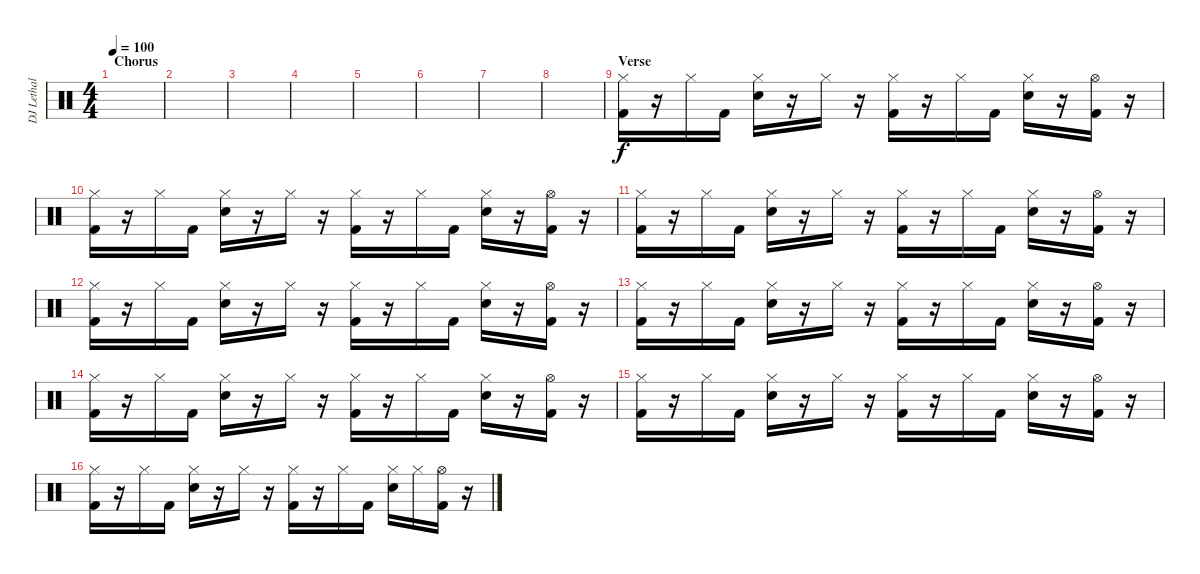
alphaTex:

\track ("DJ Lethal - Sample Drums" "DJ Lethal ") {instrument percussion}
\staff {score}
\articulation defaults
\ts (4 4)
\section ("" "Chorus")
\tempo 100
\clef neutral
\ks c
|
|
|
|
|
|
|
|
\section ("" "Verse")
("Hi-Hat (closed)" "Kick (hit) 2").16 r.16 "Hi-Hat (closed)".16 "Kick (hit) 2".16 ("Hi-Hat (closed)" "Electric Snare (hit)").16 r.16 "Hi-Hat (closed)".16 r.16 ("Hi-Hat (closed)" "Kick (hit) 2").16 r.16 "Hi-Hat (closed)".16 "Kick (hit) 2".16 ("Hi-Hat (closed)" "Electric Snare (hit)").16 r.16 ("Hi-Hat (open)" "Kick (hit) 2").16 r.16 |
("Hi-Hat (closed)" "Kick (hit) 2").16 r.16 "Hi-Hat (closed)".16 "Kick (hit) 2".16 ("Hi-Hat (closed)" "Electric Snare (hit)").16 r.16 "Hi-Hat (closed)".16 r.16 ("Hi-Hat (closed)" "Kick (hit) 2").16 r.16 "Hi-Hat (closed)".16 "Kick (hit) 2".16 ("Hi-Hat (closed)" "Electric Snare (hit)").16 r.16 ("Hi-Hat (open)" "Kick (hit) 2").16 r.16 |
("Hi-Hat (closed)" "Kick (hit) 2").16 r.16 "Hi-Hat (closed)".16 "Kick (hit) 2".16 ("Hi-Hat (closed)" "Electric Snare (hit)").16 r.16 "Hi-Hat (closed)".16 r.16 ("Hi-Hat (closed)" "Kick (hit) 2").16 r.16 "Hi-Hat (closed)".16 "Kick (hit) 2".16 ("Hi-Hat (closed)" "Electric Snare (hit)").16 r.16 ("Hi-Hat (open)" "Kick (hit) 2").16 r.16 |
("Hi-Hat (closed)" "Kick (hit) 2").16 r.16 "Hi-Hat (closed)".16 "Kick (hit) 2".16 ("Hi-Hat (closed)" "Electric Snare (hit)").16 r.16 "Hi-Hat (closed)".16 r.16 ("Hi-Hat (closed)" "Kick (hit) 2").16 r.16 "Hi-Hat (closed)".16 "Kick (hit) 2".16 ("Hi-Hat (closed)" "Electric Snare (hit)").16 r.16 ("Hi-Hat (open)" "Kick (hit) 2").16 r.16 |
("Hi-Hat (closed)" "Kick (hit) 2").16 r.16 "Hi-Hat (closed)".16 "Kick (hit) 2".16 ("Hi-Hat (closed)" "Electric Snare (hit)").16 r.16 "Hi-Hat (closed)".16 r.16 ("Hi-Hat (closed)" "Kick (hit) 2").16 r.16 "Hi-Hat (closed)".16 "Kick (hit) 2".16 ("Hi-Hat (closed)" "Electric Snare (hit)").16 r.16 ("Hi-Hat (open)" "Kick (hit) 2").16 r.16 |
("Hi-Hat (closed)" "Kick (hit) 2").16 r.16 "Hi-Hat (closed)".16 "Kick (hit) 2".16 ("Hi-Hat (closed)" "Electric Snare (hit)").16 r.16 "Hi-Hat (closed)".16 r.16 ("Hi-Hat (closed)" "Kick (hit) 2").16 r.16 "Hi-Hat (closed)".16 "Kick (hit) 2".16 ("Hi-Hat (closed)" "Electric Snare (hit)").16 r.16 ("Hi-Hat (open)" "Kick (hit) 2").16 r.16 |
("Hi-Hat (closed)" "Kick (hit) 2").16 r.16 "Hi-Hat (closed)".16 "Kick (hit) 2".16 ("Hi-Hat (closed)" "Electric Snare (hit)").16 r.16 "Hi-Hat (closed)".16 r.16 ("Hi-Hat (closed)" "Kick (hit) 2").16 r.16 "Hi-Hat (closed)".16 "Kick (hit) 2".16 ("Hi-Hat (closed)" "Electric Snare (hit)").16 r.16 ("Hi-Hat (open)" "Kick (hit) 2").16 r.16 |
("Hi-Hat (closed)" "Kick (hit) 2").16 r.16 "Hi-Hat (closed)".16 "Kick (hit) 2".16 ("Hi-Hat (closed)" "Electric Snare (hit)").16 r.16 "Hi-Hat (closed)".16 r.16 ("Hi-Hat (closed)" "Kick (hit) 2").16 r.16 "Hi-Hat (closed)".16 "Kick (hit) 2".16 ("Hi-Hat (closed)" "Electric Snare (hit)").16 "Hi-Hat (closed)".16 ("Hi-Hat (open)" "Kick (hit) 2").16 r.16
